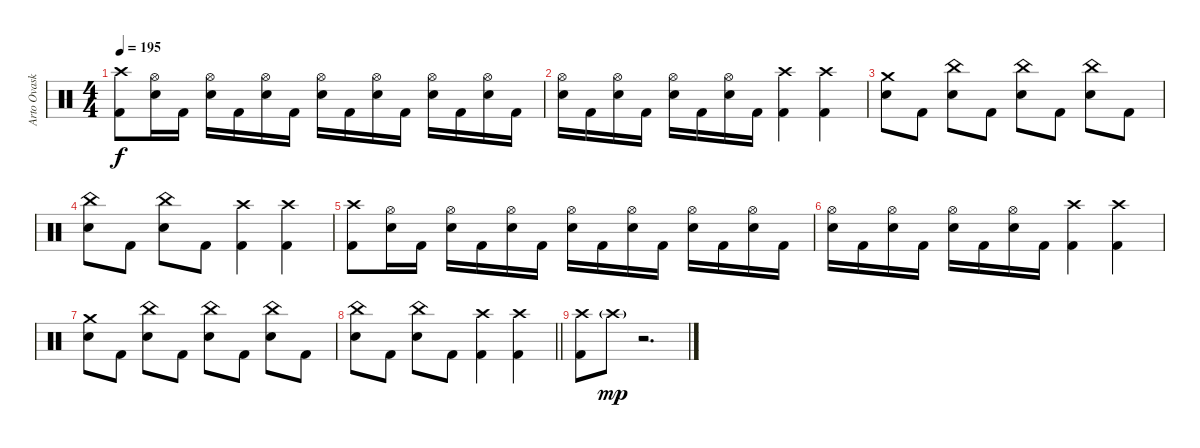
\track ("Arto Ovaskainen" "Arto Ovask") {instrument percussion}
\staff {score}
\articulation defaults
\ts (4 4)
\tempo 195
\clef neutral
\ks c
("Crash high (hit)" "Kick (hit) 2").8{dy f} ("Hi-Hat (open)" "Electric Snare (hit)").16 "Kick (hit) 2".16 ("Hi-Hat (open)" "Electric Snare (hit)").16 "Kick (hit) 2".16 ("Hi-Hat (open)" "Electric Snare (hit)").16 "Kick (hit) 2".16 ("Hi-Hat (open)" "Electric Snare (hit)").16 "Kick (hit) 2".16 ("Hi-Hat (open)" "Electric Snare (hit)").16 "Kick (hit) 2".16 ("Hi-Hat (open)" "Electric Snare (hit)").16 "Kick (hit) 2".16 ("Hi-Hat (open)" "Electric Snare (hit)").16 "Kick (hit) 2".16 |
("Hi-Hat (open)" "Electric Snare (hit)").16 "Kick (hit) 2".16 ("Hi-Hat (open)" "Electric Snare (hit)").16 "Kick (hit) 2".16 ("Hi-Hat (open)" "Electric Snare (hit)").16 "Kick (hit) 2".16 ("Hi-Hat (open)" "Electric Snare (hit)").16 "Kick (hit) 2".16 ("Crash high (hit)" "Kick (hit) 2").4 ("Crash high (hit)" "Kick (hit) 2").4 |
("Crash medium (hit)" "Electric Snare (hit)").8 "Kick (hit) 2".8 ("China (hit)" "Electric Snare (hit)").8 "Kick (hit) 2".8 ("China (hit)" "Electric Snare (hit)").8 "Kick (hit) 2".8 ("China (hit)" "Electric Snare (hit)").8 "Kick (hit) 2".8 |
("China (hit)" "Electric Snare (hit)").8 "Kick (hit) 2".8 ("China (hit)" "Electric Snare (hit)").8 "Kick (hit) 2".8 ("Crash high (hit)" "Kick (hit) 2").4 ("Crash high (hit)" "Kick (hit) 2").4 |
("Crash high (hit)" "Kick (hit) 2").8 ("Hi-Hat (open)" "Electric Snare (hit)").16 "Kick (hit) 2".16 ("Hi-Hat (open)" "Electric Snare (hit)").16 "Kick (hit) 2".16 ("Hi-Hat (open)" "Electric Snare (hit)").16 "Kick (hit) 2".16 ("Hi-Hat (open)" "Electric Snare (hit)").16 "Kick (hit) 2".16 ("Hi-Hat (open)" "Electric Snare (hit)").16 "Kick (hit) 2".16 ("Hi-Hat (open)" "Electric Snare (hit)").16 "Kick (hit) 2".16 ("Hi-Hat (open)" "Electric Snare (hit)").16 "Kick (hit) 2".16 |
("Hi-Hat (open)" "Electric Snare (hit)").16 "Kick (hit) 2".16 ("Hi-Hat (open)" "Electric Snare (hit)").16 "Kick (hit) 2".16 ("Hi-Hat (open)" "Electric Snare (hit)").16 "Kick (hit) 2".16 ("Hi-Hat (open)" "Electric Snare (hit)").16 "Kick (hit) 2".16 ("Crash high (hit)" "Kick (hit) 2").4 ("Crash high (hit)" "Kick (hit) 2").4 |
("Crash medium (hit)" "Electric Snare (hit)").8 "Kick (hit) 2".8 ("China (hit)" "Electric Snare (hit)").8 "Kick (hit) 2".8 ("China (hit)" "Electric Snare (hit)").8 "Kick (hit) 2".8 ("China (hit)" "Electric Snare (hit)").8 "Kick (hit) 2".8 |
\barLineRight lightlight
("China (hit)" "Electric Snare (hit)").8 "Kick (hit) 2".8 ("China (hit)" "Electric Snare (hit)").8 "Kick (hit) 2".8 ("Crash high (hit)" "Kick (hit) 2").4 ("Crash high (hit)" "Kick (hit) 2").4 |
("Crash high (hit)" "Kick (hit) 2").8 "Crash high (hit)"{g}.8{dy mp} r.2{d}
